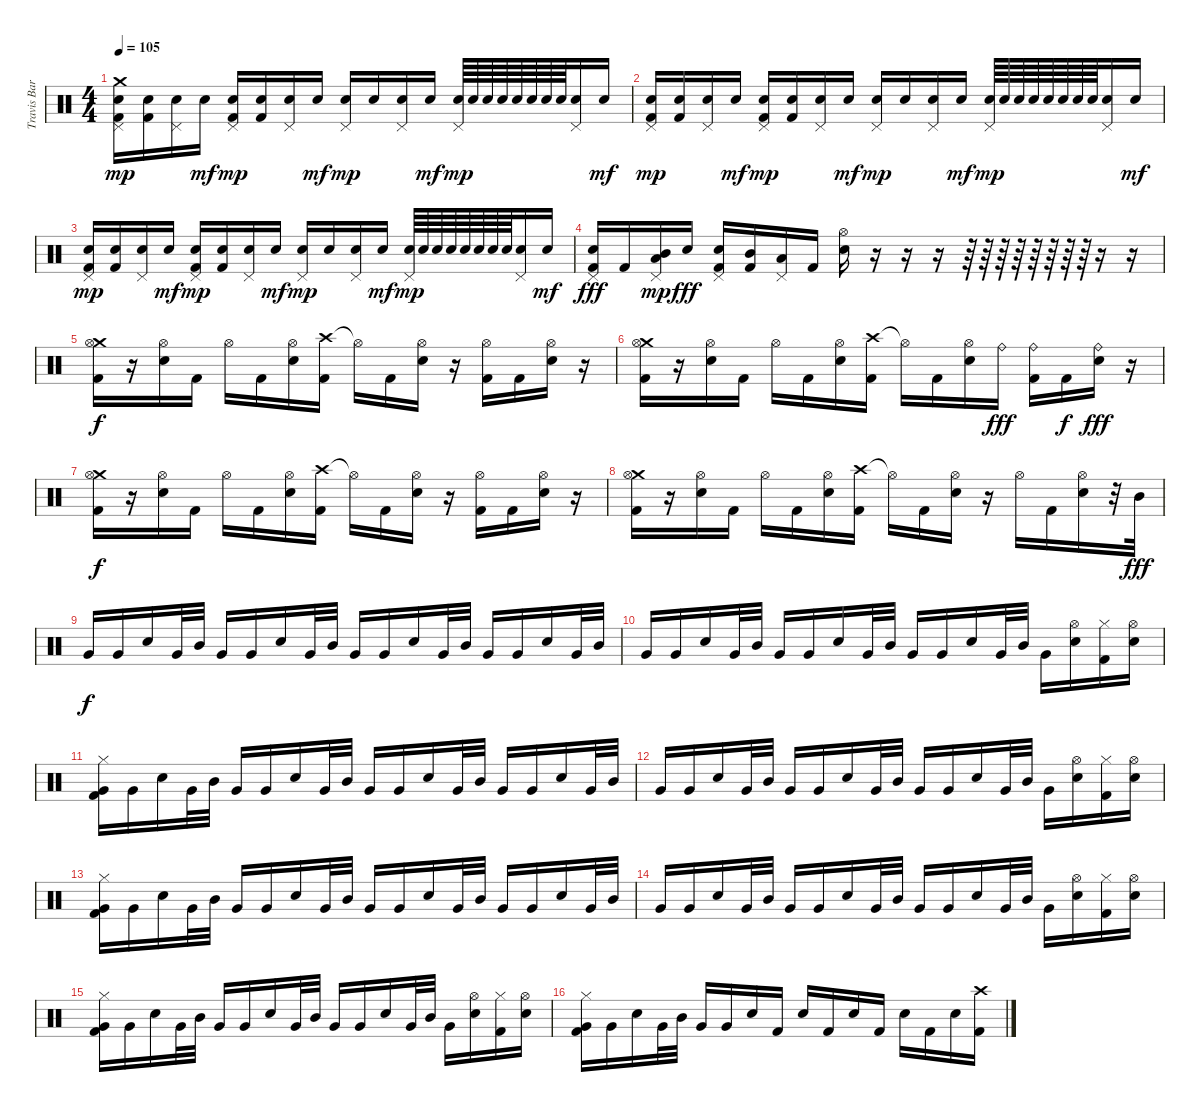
\track ("Travis Barker" "Travis Bar") {instrument percussion}
\staff {score}
\articulation defaults
\ts (4 4)
\tempo 105
\clef neutral
\ks c
("Crash medium (hit)" "Pedal Hi-Hat (hit)" "Electric Snare (hit)" "Kick (hit) 2").16{dy mp} ("Electric Snare (hit)" "Kick (hit) 2").16 ("Pedal Hi-Hat (hit)" "Electric Snare (hit)").16 "Electric Snare (hit)".16{dy mf} ("Pedal Hi-Hat (hit)" "Electric Snare (hit)" "Kick (hit) 2").16{dy mp} ("Electric Snare (hit)" "Kick (hit) 2").16 ("Pedal Hi-Hat (hit)" "Electric Snare (hit)").16 "Electric Snare (hit)".16{dy mf} ("Pedal Hi-Hat (hit)" "Electric Snare (hit)").16{dy mp} "Electric Snare (hit)".16 ("Pedal Hi-Hat (hit)" "Electric Snare (hit)").16 "Electric Snare (hit)".16{dy mf} ("Pedal Hi-Hat (hit)" "Electric Snare (hit)").64{dy mp} "Electric Snare (hit)".64 "Electric Snare (hit)".64 "Electric Snare (hit)".64 "Electric Snare (hit)".64 "Electric Snare (hit)".64 "Electric Snare (hit)".64 "Electric Snare (hit)".64 ("Pedal Hi-Hat (hit)" "Electric Snare (hit)").16 "Electric Snare (hit)".16{dy mf} |
("Pedal Hi-Hat (hit)" "Electric Snare (hit)" "Kick (hit) 2").16{dy mp} ("Electric Snare (hit)" "Kick (hit) 2").16 ("Pedal Hi-Hat (hit)" "Electric Snare (hit)").16 "Electric Snare (hit)".16{dy mf} ("Pedal Hi-Hat (hit)" "Electric Snare (hit)" "Kick (hit) 2").16{dy mp} ("Electric Snare (hit)" "Kick (hit) 2").16 ("Pedal Hi-Hat (hit)" "Electric Snare (hit)").16 "Electric Snare (hit)".16{dy mf} ("Pedal Hi-Hat (hit)" "Electric Snare (hit)").16{dy mp} "Electric Snare (hit)".16 ("Pedal Hi-Hat (hit)" "Electric Snare (hit)").16 "Electric Snare (hit)".16{dy mf} ("Pedal Hi-Hat (hit)" "Electric Snare (hit)").64{dy mp} "Electric Snare (hit)".64 "Electric Snare (hit)".64 "Electric Snare (hit)".64 "Electric Snare (hit)".64 "Electric Snare (hit)".64 "Electric Snare (hit)".64 "Electric Snare (hit)".64 ("Pedal Hi-Hat (hit)" "Electric Snare (hit)").16 "Electric Snare (hit)".16{dy mf} |
("Pedal Hi-Hat (hit)" "Electric Snare (hit)" "Kick (hit) 2").16{dy mp} ("Electric Snare (hit)" "Kick (hit) 2").16 ("Pedal Hi-Hat (hit)" "Electric Snare (hit)").16 "Electric Snare (hit)".16{dy mf} ("Pedal Hi-Hat (hit)" "Electric Snare (hit)" "Kick (hit) 2").16{dy mp} ("Electric Snare (hit)" "Kick (hit) 2").16 ("Pedal Hi-Hat (hit)" "Electric Snare (hit)").16 "Electric Snare (hit)".16{dy mf} ("Pedal Hi-Hat (hit)" "Electric Snare (hit)").16{dy mp} "Electric Snare (hit)".16 ("Pedal Hi-Hat (hit)" "Electric Snare (hit)").16 "Electric Snare (hit)".16{dy mf} ("Pedal Hi-Hat (hit)" "Electric Snare (hit)").64{dy mp} "Electric Snare (hit)".64 "Electric Snare (hit)".64 "Electric Snare (hit)".64 "Electric Snare (hit)".64 "Electric Snare (hit)".64 "Electric Snare (hit)".64 "Electric Snare (hit)".64 ("Pedal Hi-Hat (hit)" "Electric Snare (hit)").16 "Electric Snare (hit)".16{dy mf} |
("Pedal Hi-Hat (hit)" "Electric Snare (hit)" "Kick (hit) 2").16{dy fff} "Kick (hit) 2".16 ("Pedal Hi-Hat (hit)" "Mid Tom (hit)" "Low Tom (hit)").16{dy mp} "Electric Snare (hit)".16{dy fff} ("Pedal Hi-Hat (hit)" "Electric Snare (hit)" "Kick (hit) 2").16 ("Mid Tom (hit)" "Kick (hit) 2").16 ("Pedal Hi-Hat (hit)" "Low Tom (hit)").16 "Kick (hit) 2".16 ("Hi-Hat (open)" "Electric Snare (hit)").16 r.16 r.16 r.16 r.64 r.64 r.64 r.64 r.64 r.64 r.64 r.64 r.16 r.16 |
("Crash medium (hit)" "Hi-Hat (open)" "Kick (hit) 2").16{dy f} r.16 ("Hi-Hat (open)" "Electric Snare (hit)").16 "Kick (hit) 2".16 "Hi-Hat (open)".16 "Kick (hit) 2".16 ("Hi-Hat (open)" "Electric Snare (hit)").16 ("Crash high (hit)" "Kick (hit) 2").16 "Hi-Hat (open)"{t}.16 "Kick (hit) 2".16 ("Hi-Hat (open)" "Electric Snare (hit)").16 r.16 ("Hi-Hat (open)" "Kick (hit) 2").16 "Kick (hit) 2".16 ("Hi-Hat (open)" "Electric Snare (hit)").16 r.16 |
("Crash medium (hit)" "Hi-Hat (open)" "Kick (hit) 2").16 r.16 ("Hi-Hat (open)" "Electric Snare (hit)").16 "Kick (hit) 2".16 "Hi-Hat (open)".16 "Kick (hit) 2".16 ("Hi-Hat (open)" "Electric Snare (hit)").16 ("Crash high (hit)" "Kick (hit) 2").16 "Hi-Hat (open)"{t}.16 "Kick (hit) 2".16 ("Hi-Hat (open)" "Electric Snare (hit)").16 "Ride (bell)".16{dy fff} ("Ride (bell)" "Kick (hit) 2").16 "Kick (hit) 2".16{dy f} ("Ride (bell)" "Electric Snare (hit)").16{dy fff} r.16 |
("Crash medium (hit)" "Hi-Hat (open)" "Kick (hit) 2").16{dy f} r.16 ("Hi-Hat (open)" "Electric Snare (hit)").16 "Kick (hit) 2".16 "Hi-Hat (open)".16 "Kick (hit) 2".16 ("Hi-Hat (open)" "Electric Snare (hit)").16 ("Crash high (hit)" "Kick (hit) 2").16 "Hi-Hat (open)"{t}.16 "Kick (hit) 2".16 ("Hi-Hat (open)" "Electric Snare (hit)").16 r.16 ("Hi-Hat (open)" "Kick (hit) 2").16 "Kick (hit) 2".16 ("Hi-Hat (open)" "Electric Snare (hit)").16 r.16 |
("Crash medium (hit)" "Hi-Hat (open)" "Kick (hit) 2").16 r.16 ("Hi-Hat (open)" "Electric Snare (hit)").16 "Kick (hit) 2".16 "Hi-Hat (open)".16 "Kick (hit) 2".16 ("Hi-Hat (open)" "Electric Snare (hit)").16 ("Crash high (hit)" "Kick (hit) 2").16 "Hi-Hat (open)"{t}.16 "Kick (hit) 2".16 ("Hi-Hat (open)" "Electric Snare (hit)").16 r.16 "Hi-Hat (open)".16 "Kick (hit) 2".16 ("Hi-Hat (open)" "Electric Snare (hit)").16 r.32 "Mid Tom (hit)".32{dy fff} |
"Very Low Tom (hit)".16{dy f} "Very Low Tom (hit)".16 "Electric Snare (hit)".16 "Very Low Tom (hit)".32 "Mid Tom (hit)".32 "Very Low Tom (hit)".16 "Very Low Tom (hit)".16 "Electric Snare (hit)".16 "Very Low Tom (hit)".32 "Mid Tom (hit)".32 "Very Low Tom (hit)".16 "Very Low Tom (hit)".16 "Electric Snare (hit)".16 "Very Low Tom (hit)".32 "Mid Tom (hit)".32 "Very Low Tom (hit)".16 "Very Low Tom (hit)".16 "Electric Snare (hit)".16 "Very Low Tom (hit)".32 "Mid Tom (hit)".32 |
"Very Low Tom (hit)".16 "Very Low Tom (hit)".16 "Electric Snare (hit)".16 "Very Low Tom (hit)".32 "Mid Tom (hit)".32 "Very Low Tom (hit)".16 "Very Low Tom (hit)".16 "Electric Snare (hit)".16 "Very Low Tom (hit)".32 "Mid Tom (hit)".32 "Very Low Tom (hit)".16 "Very Low Tom (hit)".16 "Electric Snare (hit)".16 "Very Low Tom (hit)".32 "Mid Tom (hit)".32 "Very Low Tom (hit)".16 ("Hi-Hat (open)" "Electric Snare (hit)").16 ("Hi-Hat (closed)" "Kick (hit) 2").16 ("Hi-Hat (open)" "Electric Snare (hit)").16 |
("Hi-Hat (closed)" "Very Low Tom (hit)" "Kick (hit) 2").16 "Very Low Tom (hit)".16 "Electric Snare (hit)".16 "Very Low Tom (hit)".32 "Mid Tom (hit)".32 "Very Low Tom (hit)".16 "Very Low Tom (hit)".16 "Electric Snare (hit)".16 "Very Low Tom (hit)".32 "Mid Tom (hit)".32 "Very Low Tom (hit)".16 "Very Low Tom (hit)".16 "Electric Snare (hit)".16 "Very Low Tom (hit)".32 "Mid Tom (hit)".32 "Very Low Tom (hit)".16 "Very Low Tom (hit)".16 "Electric Snare (hit)".16 "Very Low Tom (hit)".32 "Mid Tom (hit)".32 |
"Very Low Tom (hit)".16 "Very Low Tom (hit)".16 "Electric Snare (hit)".16 "Very Low Tom (hit)".32 "Mid Tom (hit)".32 "Very Low Tom (hit)".16 "Very Low Tom (hit)".16 "Electric Snare (hit)".16 "Very Low Tom (hit)".32 "Mid Tom (hit)".32 "Very Low Tom (hit)".16 "Very Low Tom (hit)".16 "Electric Snare (hit)".16 "Very Low Tom (hit)".32 "Mid Tom (hit)".32 "Very Low Tom (hit)".16 ("Hi-Hat (open)" "Electric Snare (hit)").16 ("Hi-Hat (closed)" "Kick (hit) 2").16 ("Hi-Hat (open)" "Electric Snare (hit)").16 |
("Hi-Hat (closed)" "Very Low Tom (hit)" "Kick (hit) 2").16 "Very Low Tom (hit)".16 "Electric Snare (hit)".16 "Very Low Tom (hit)".32 "Mid Tom (hit)".32 "Very Low Tom (hit)".16 "Very Low Tom (hit)".16 "Electric Snare (hit)".16 "Very Low Tom (hit)".32 "Mid Tom (hit)".32 "Very Low Tom (hit)".16 "Very Low Tom (hit)".16 "Electric Snare (hit)".16 "Very Low Tom (hit)".32 "Mid Tom (hit)".32 "Very Low Tom (hit)".16 "Very Low Tom (hit)".16 "Electric Snare (hit)".16 "Very Low Tom (hit)".32 "Mid Tom (hit)".32 |
"Very Low Tom (hit)".16 "Very Low Tom (hit)".16 "Electric Snare (hit)".16 "Very Low Tom (hit)".32 "Mid Tom (hit)".32 "Very Low Tom (hit)".16 "Very Low Tom (hit)".16 "Electric Snare (hit)".16 "Very Low Tom (hit)".32 "Mid Tom (hit)".32 "Very Low Tom (hit)".16 "Very Low Tom (hit)".16 "Electric Snare (hit)".16 "Very Low Tom (hit)".32 "Mid Tom (hit)".32 "Very Low Tom (hit)".16 ("Hi-Hat (open)" "Electric Snare (hit)").16 ("Hi-Hat (closed)" "Kick (hit) 2").16 ("Hi-Hat (open)" "Electric Snare (hit)").16 |
("Hi-Hat (closed)" "Very Low Tom (hit)" "Kick (hit) 2").16 "Very Low Tom (hit)".16 "Electric Snare (hit)".16 "Very Low Tom (hit)".32 "Mid Tom (hit)".32 "Very Low Tom (hit)".16 "Very Low Tom (hit)".16 "Electric Snare (hit)".16 "Very Low Tom (hit)".32 "Mid Tom (hit)".32 "Very Low Tom (hit)".16 "Very Low Tom (hit)".16 "Electric Snare (hit)".16 "Very Low Tom (hit)".32 "Mid Tom (hit)".32 "Very Low Tom (hit)".16 ("Hi-Hat (open)" "Electric Snare (hit)").16 ("Hi-Hat (closed)" "Kick (hit) 2").16 ("Hi-Hat (open)" "Electric Snare (hit)").16 |
("Hi-Hat (closed)" "Very Low Tom (hit)" "Kick (hit) 2").16 "Very Low Tom (hit)".16 "Electric Snare (hit)".16 "Very Low Tom (hit)".32 "Mid Tom (hit)".32 "Very Low Tom (hit)".16 "Very Low Tom (hit)".16 "Electric Snare (hit)".16 "Kick (hit) 2".16 "Electric Snare (hit)".16 "Kick (hit) 2".16 "Electric Snare (hit)".16 "Kick (hit) 2".16 "Electric Snare (hit)".16 "Kick (hit) 2".16 "Electric Snare (hit)".16 ("Crash high (hit)" "Kick (hit) 2").16
